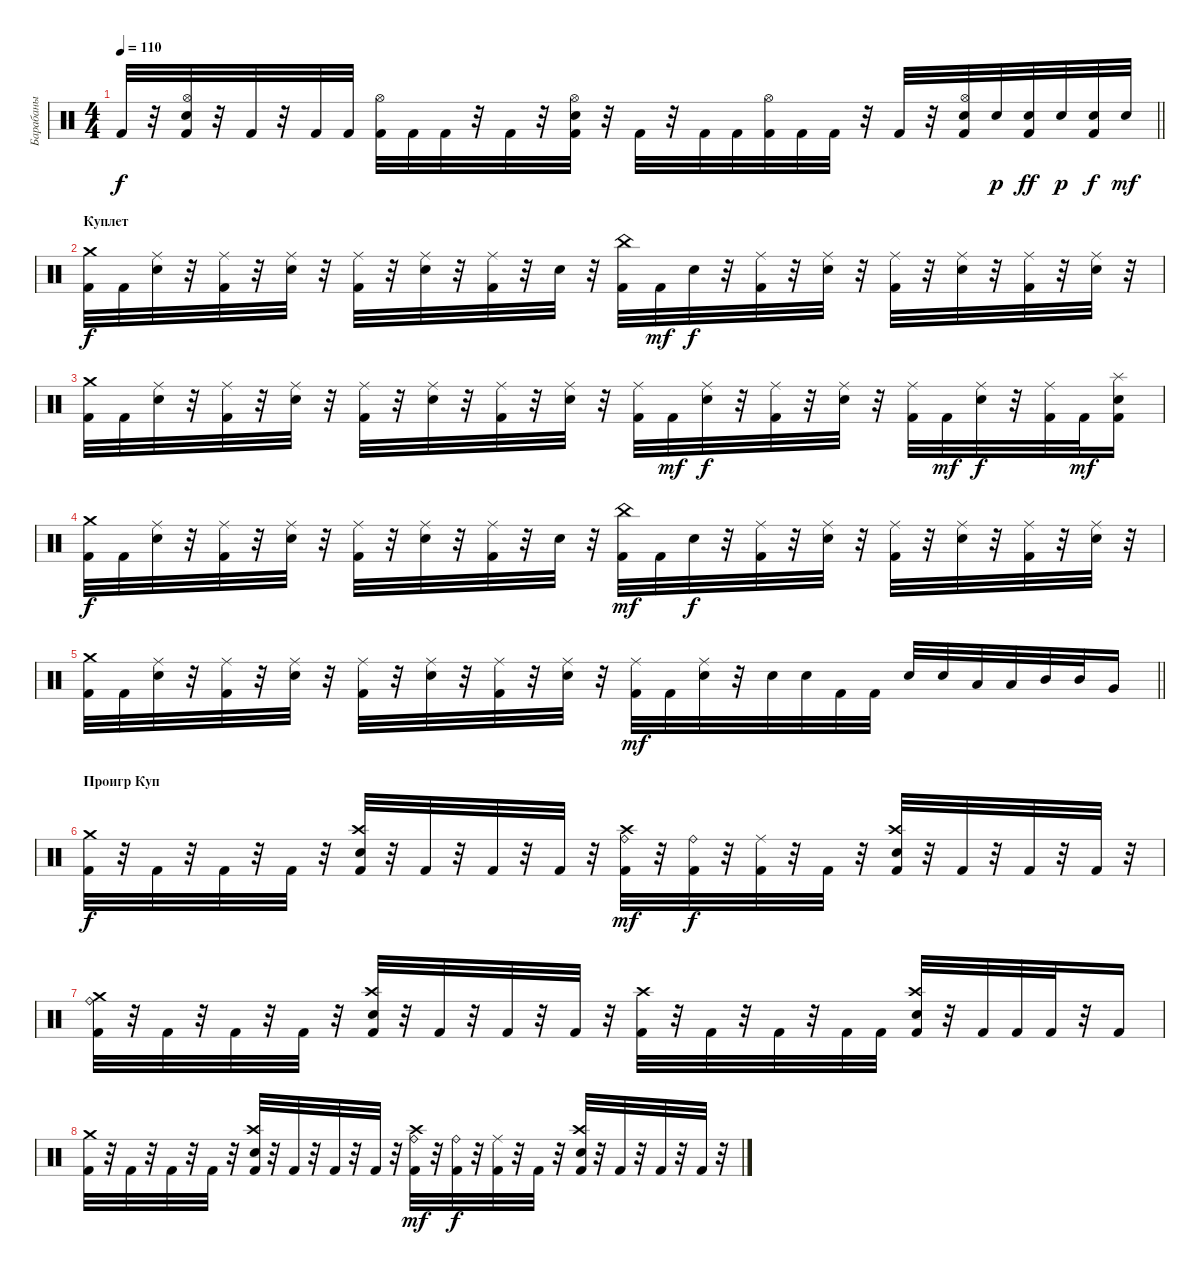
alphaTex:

\track ("Барабаны" "Барабаны") {instrument percussion}
\staff {score}
\articulation defaults
\ts (4 4)
\tempo 110
\clef neutral
\barLineRight lightlight
\ks c "Kick (hit) 2".32{dy f}
r.32 ("Hi-Hat (open)" "Electric Snare (hit)" "Kick (hit) 2").32 r.32 "Kick (hit) 2".32 r.32 "Kick (hit) 2".32 "Kick (hit) 2".32 ("Hi-Hat (open)" "Kick (hit) 2").32 "Kick (hit) 2".32 "Kick (hit) 2".32 r.32 "Kick (hit) 2".32 r.32 ("Hi-Hat (open)" "Electric Snare (hit)" "Kick (hit) 2").32 r.32 "Kick (hit) 2".32 r.32 "Kick (hit) 2".32 "Kick (hit) 2".32 ("Hi-Hat (open)" "Kick (hit) 2").32 "Kick (hit) 2".32 "Kick (hit) 2".32 r.32 "Kick (hit) 2".32 r.32 ("Hi-Hat (open)" "Electric Snare (hit)" "Kick (hit) 2").32 "Electric Snare (hit)".32{dy p} ("Electric Snare (hit)" "Kick (hit) 2").32{dy ff} "Electric Snare (hit)".32{dy p} ("Electric Snare (hit)" "Kick (hit) 2").32{dy f} "Electric Snare (hit)".32{dy mf} |
\section ("" "Куплет")
("Crash medium (hit)" "Kick (hit) 2").32{dy f} "Kick (hit) 2".32 ("Ride (middle)" "Electric Snare (hit)").32 r.32 ("Ride (middle)" "Kick (hit) 2").32 r.32 ("Ride (middle)" "Electric Snare (hit)").32 r.32 ("Ride (middle)" "Kick (hit) 2").32 r.32 ("Ride (middle)" "Electric Snare (hit)").32 r.32 ("Ride (middle)" "Kick (hit) 2").32 r.32 "Electric Snare (hit)".32 r.32 ("China (hit)" "Kick (hit) 2").32 "Kick (hit) 2".32{dy mf} "Electric Snare (hit)".32{dy f} r.32 ("Ride (middle)" "Kick (hit) 2").32 r.32 ("Ride (middle)" "Electric Snare (hit)").32 r.32 ("Ride (middle)" "Kick (hit) 2").32 r.32 ("Ride (middle)" "Electric Snare (hit)").32 r.32 ("Ride (middle)" "Kick (hit) 2").32 r.32 ("Ride (middle)" "Electric Snare (hit)").32 r.32 |
("Crash medium (hit)" "Kick (hit) 2").32 "Kick (hit) 2".32 ("Ride (middle)" "Electric Snare (hit)").32 r.32 ("Ride (middle)" "Kick (hit) 2").32 r.32 ("Ride (middle)" "Electric Snare (hit)").32 r.32 ("Ride (middle)" "Kick (hit) 2").32 r.32 ("Ride (middle)" "Electric Snare (hit)").32 r.32 ("Ride (middle)" "Kick (hit) 2").32 r.32 ("Ride (middle)" "Electric Snare (hit)").32 r.32 ("Ride (middle)" "Kick (hit) 2").32 "Kick (hit) 2".32{dy mf} ("Ride (middle)" "Electric Snare (hit)").32{dy f} r.32 ("Ride (middle)" "Kick (hit) 2").32 r.32 ("Ride (middle)" "Electric Snare (hit)").32 r.32 ("Ride (middle)" "Kick (hit) 2").32 "Kick (hit) 2".32{dy mf} ("Ride (middle)" "Electric Snare (hit)").32{dy f} r.32 ("Ride (middle)" "Kick (hit) 2").32 "Kick (hit) 2".32{dy mf} ("Splash (hit)" "Electric Snare (hit)" "Kick (hit) 2").16 |
("Crash medium (hit)" "Kick (hit) 2").32{dy f} "Kick (hit) 2".32 ("Ride (middle)" "Electric Snare (hit)").32 r.32 ("Ride (middle)" "Kick (hit) 2").32 r.32 ("Ride (middle)" "Electric Snare (hit)").32 r.32 ("Ride (middle)" "Kick (hit) 2").32 r.32 ("Ride (middle)" "Electric Snare (hit)").32 r.32 ("Ride (middle)" "Kick (hit) 2").32 r.32 "Electric Snare (hit)".32 r.32 ("China (hit)" "Kick (hit) 2").32{dy mf} "Kick (hit) 2".32 "Electric Snare (hit)".32{dy f} r.32 ("Ride (middle)" "Kick (hit) 2").32 r.32 ("Ride (middle)" "Electric Snare (hit)").32 r.32 ("Ride (middle)" "Kick (hit) 2").32 r.32 ("Ride (middle)" "Electric Snare (hit)").32 r.32 ("Ride (middle)" "Kick (hit) 2").32 r.32 ("Ride (middle)" "Electric Snare (hit)").32 r.32 |
\barLineRight lightlight
("Crash medium (hit)" "Kick (hit) 2").32 "Kick (hit) 2".32 ("Ride (middle)" "Electric Snare (hit)").32 r.32 ("Ride (middle)" "Kick (hit) 2").32 r.32 ("Ride (middle)" "Electric Snare (hit)").32 r.32 ("Ride (middle)" "Kick (hit) 2").32 r.32 ("Ride (middle)" "Electric Snare (hit)").32 r.32 ("Ride (middle)" "Kick (hit) 2").32 r.32 ("Ride (middle)" "Electric Snare (hit)").32 r.32 ("Ride (middle)" "Kick (hit) 2").32{dy mf} "Kick (hit) 2".32 ("Ride (middle)" "Electric Snare (hit)").32 r.32 "Electric Snare (hit)".32 "Electric Snare (hit)".32 "Kick (hit) 2".32 "Kick (hit) 2".32 "Electric Snare (hit)".32 "Electric Snare (hit)".32 "Low Tom (hit)".32 "Low Tom (hit)".32 "Mid Tom (hit)".32 "Mid Tom (hit)".32 "Very Low Tom (hit)".16 |
\section ("" "Проигр Куп")
("Crash medium (hit)" "Kick (hit) 2").32{dy f} r.32 "Kick (hit) 2".32 r.32 "Kick (hit) 2".32 r.32 "Kick (hit) 2".32 r.32 ("Crash high (hit)" "Snare (hit) 2" "Kick (hit) 2").32 r.32 "Kick (hit) 2".32 r.32 "Kick (hit) 2".32 r.32 "Kick (hit) 2".32 r.32 ("Ride (bell)" "Crash high (hit)" "Kick (hit) 2").32{dy mf} r.32 ("Ride (bell)" "Kick (hit) 2").32{dy f} r.32 ("Ride (middle)" "Kick (hit) 2").32 r.32 "Kick (hit) 2".32 r.32 ("Crash high (hit)" "Snare (hit) 2" "Kick (hit) 2").32 r.32 "Kick (hit) 2".32 r.32 "Kick (hit) 2".32 r.32 "Kick (hit) 2".32 r.32 |
("Crash medium (hit)" "Ride (bell)" "Kick (hit) 2").32 r.32 "Kick (hit) 2".32 r.32 "Kick (hit) 2".32 r.32 "Kick (hit) 2".32 r.32 ("Crash high (hit)" "Snare (hit) 2" "Kick (hit) 2").32 r.32 "Kick (hit) 2".32 r.32 "Kick (hit) 2".32 r.32 "Kick (hit) 2".32 r.32 ("Crash high (hit)" "Kick (hit) 2").32 r.32 "Kick (hit) 2".32 r.32 "Kick (hit) 2".32 r.32 "Kick (hit) 2".32 "Kick (hit) 2".32 ("Crash high (hit)" "Snare (hit) 2" "Kick (hit) 2").32 r.32 "Kick (hit) 2".32 "Kick (hit) 2".32 "Kick (hit) 2".32 r.32 "Kick (hit) 2".16 |
("Crash medium (hit)" "Kick (hit) 2").32 r.32 "Kick (hit) 2".32 r.32 "Kick (hit) 2".32 r.32 "Kick (hit) 2".32 r.32 ("Crash high (hit)" "Snare (hit) 2" "Kick (hit) 2").32 r.32 "Kick (hit) 2".32 r.32 "Kick (hit) 2".32 r.32 "Kick (hit) 2".32 r.32 ("Ride (bell)" "Crash high (hit)" "Kick (hit) 2").32{dy mf} r.32 ("Ride (bell)" "Kick (hit) 2").32{dy f} r.32 ("Ride (middle)" "Kick (hit) 2").32 r.32 "Kick (hit) 2".32 r.32 ("Crash high (hit)" "Snare (hit) 2" "Kick (hit) 2").32 r.32 "Kick (hit) 2".32 r.32 "Kick (hit) 2".32 r.32 "Kick (hit) 2".32 r.32
